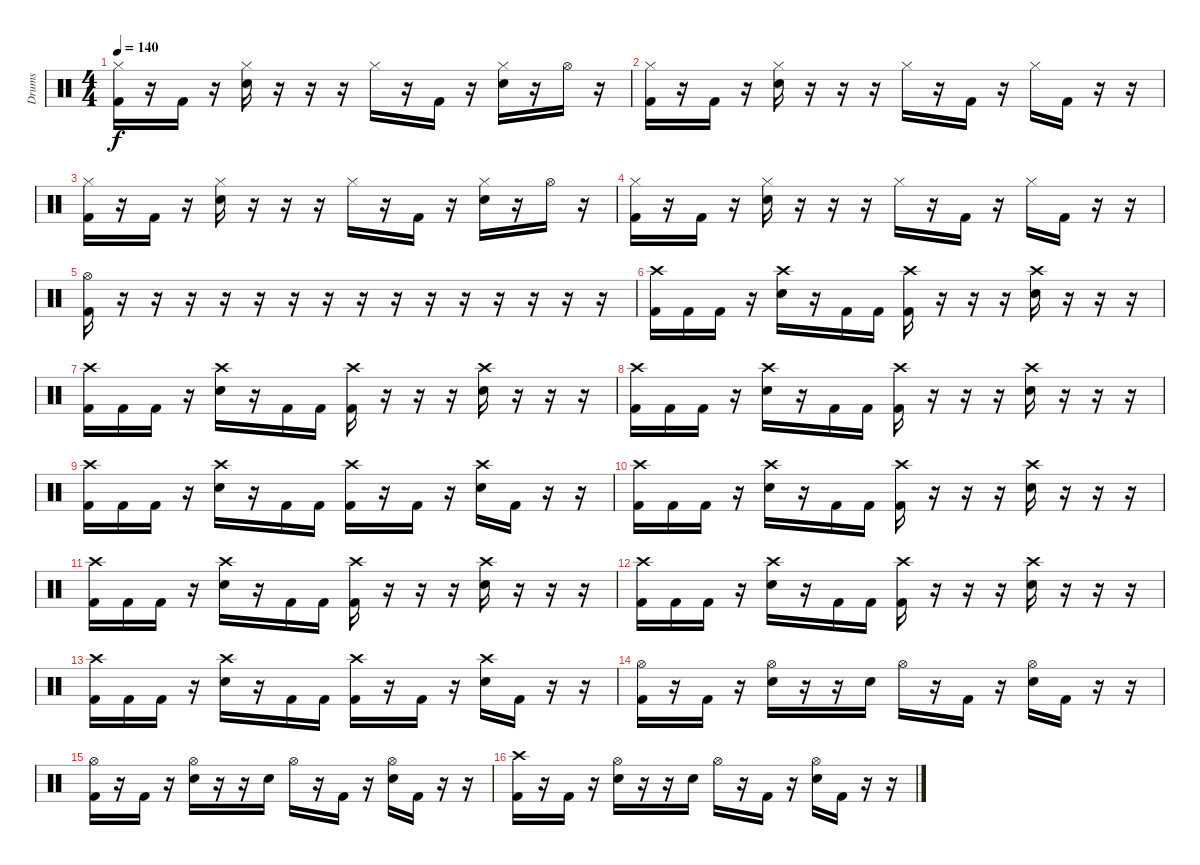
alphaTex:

\track ("Drums" "Drums") {instrument percussion}
\staff {score}
\articulation defaults
\ts (4 4)
\tempo 140
\clef neutral
\ks c
("Hi-Hat (closed)" "Kick (hit) 2").16{dy f} r.16 "Kick (hit) 2".16 r.16 ("Hi-Hat (closed)" "Electric Snare (hit)").16 r.16 r.16 r.16 "Hi-Hat (closed)".16 r.16 "Kick (hit) 2".16 r.16 ("Hi-Hat (closed)" "Electric Snare (hit)").16 r.16 "Hi-Hat (open)".16 r.16 |
("Hi-Hat (closed)" "Kick (hit) 2").16 r.16 "Kick (hit) 2".16 r.16 ("Hi-Hat (closed)" "Electric Snare (hit)").16 r.16 r.16 r.16 "Hi-Hat (closed)".16 r.16 "Kick (hit) 2".16 r.16 "Hi-Hat (closed)".16 "Kick (hit) 2".16 r.16 r.16 |
("Hi-Hat (closed)" "Kick (hit) 2").16 r.16 "Kick (hit) 2".16 r.16 ("Hi-Hat (closed)" "Electric Snare (hit)").16 r.16 r.16 r.16 "Hi-Hat (closed)".16 r.16 "Kick (hit) 2".16 r.16 ("Hi-Hat (closed)" "Electric Snare (hit)").16 r.16 "Hi-Hat (open)".16 r.16 |
("Hi-Hat (closed)" "Kick (hit) 2").16 r.16 "Kick (hit) 2".16 r.16 ("Hi-Hat (closed)" "Electric Snare (hit)").16 r.16 r.16 r.16 "Hi-Hat (closed)".16 r.16 "Kick (hit) 2".16 r.16 "Hi-Hat (closed)".16 "Kick (hit) 2".16 r.16 r.16 |
("Hi-Hat (open)" "Kick (hit) 2").16 r.16 r.16 r.16 r.16 r.16 r.16 r.16 r.16 r.16 r.16 r.16 r.16 r.16 r.16 r.16 |
("Crash high (hit)" "Kick (hit) 2").16 "Kick (hit) 2".16 "Kick (hit) 2".16 r.16 ("Crash high (hit)" "Electric Snare (hit)").16 r.16 "Kick (hit) 2".16 "Kick (hit) 2".16 ("Crash high (hit)" "Kick (hit) 2").16 r.16 r.16 r.16 ("Crash high (hit)" "Electric Snare (hit)").16 r.16 r.16 r.16 |
("Crash high (hit)" "Kick (hit) 2").16 "Kick (hit) 2".16 "Kick (hit) 2".16 r.16 ("Crash high (hit)" "Electric Snare (hit)").16 r.16 "Kick (hit) 2".16 "Kick (hit) 2".16 ("Crash high (hit)" "Kick (hit) 2").16 r.16 r.16 r.16 ("Crash high (hit)" "Electric Snare (hit)").16 r.16 r.16 r.16 |
("Crash high (hit)" "Kick (hit) 2").16 "Kick (hit) 2".16 "Kick (hit) 2".16 r.16 ("Crash high (hit)" "Electric Snare (hit)").16 r.16 "Kick (hit) 2".16 "Kick (hit) 2".16 ("Crash high (hit)" "Kick (hit) 2").16 r.16 r.16 r.16 ("Crash high (hit)" "Electric Snare (hit)").16 r.16 r.16 r.16 |
("Crash high (hit)" "Kick (hit) 2").16 "Kick (hit) 2".16 "Kick (hit) 2".16 r.16 ("Crash high (hit)" "Electric Snare (hit)").16 r.16 "Kick (hit) 2".16 "Kick (hit) 2".16 ("Crash high (hit)" "Kick (hit) 2").16 r.16 "Kick (hit) 2".16 r.16 ("Crash high (hit)" "Electric Snare (hit)").16 "Kick (hit) 2".16 r.16 r.16 |
("Crash high (hit)" "Kick (hit) 2").16 "Kick (hit) 2".16 "Kick (hit) 2".16 r.16 ("Crash high (hit)" "Electric Snare (hit)").16 r.16 "Kick (hit) 2".16 "Kick (hit) 2".16 ("Crash high (hit)" "Kick (hit) 2").16 r.16 r.16 r.16 ("Crash high (hit)" "Electric Snare (hit)").16 r.16 r.16 r.16 |
("Crash high (hit)" "Kick (hit) 2").16 "Kick (hit) 2".16 "Kick (hit) 2".16 r.16 ("Crash high (hit)" "Electric Snare (hit)").16 r.16 "Kick (hit) 2".16 "Kick (hit) 2".16 ("Crash high (hit)" "Kick (hit) 2").16 r.16 r.16 r.16 ("Crash high (hit)" "Electric Snare (hit)").16 r.16 r.16 r.16 |
("Crash high (hit)" "Kick (hit) 2").16 "Kick (hit) 2".16 "Kick (hit) 2".16 r.16 ("Crash high (hit)" "Electric Snare (hit)").16 r.16 "Kick (hit) 2".16 "Kick (hit) 2".16 ("Crash high (hit)" "Kick (hit) 2").16 r.16 r.16 r.16 ("Crash high (hit)" "Electric Snare (hit)").16 r.16 r.16 r.16 |
("Crash high (hit)" "Kick (hit) 2").16 "Kick (hit) 2".16 "Kick (hit) 2".16 r.16 ("Crash high (hit)" "Electric Snare (hit)").16 r.16 "Kick (hit) 2".16 "Kick (hit) 2".16 ("Crash high (hit)" "Kick (hit) 2").16 r.16 "Kick (hit) 2".16 r.16 ("Crash high (hit)" "Electric Snare (hit)").16 "Kick (hit) 2".16 r.16 r.16 |
("Hi-Hat (open)" "Kick (hit) 2").16 r.16 "Kick (hit) 2".16 r.16 ("Hi-Hat (open)" "Electric Snare (hit)").16 r.16 r.16 "Electric Snare (hit)".16 "Hi-Hat (open)".16 r.16 "Kick (hit) 2".16 r.16 ("Hi-Hat (open)" "Electric Snare (hit)").16 "Kick (hit) 2".16 r.16 r.16 |
("Hi-Hat (open)" "Kick (hit) 2").16 r.16 "Kick (hit) 2".16 r.16 ("Hi-Hat (open)" "Electric Snare (hit)").16 r.16 r.16 "Electric Snare (hit)".16 "Hi-Hat (open)".16 r.16 "Kick (hit) 2".16 r.16 ("Hi-Hat (open)" "Electric Snare (hit)").16 "Kick (hit) 2".16 r.16 r.16 |
("Crash high (hit)" "Kick (hit) 2").16 r.16 "Kick (hit) 2".16 r.16 ("Hi-Hat (open)" "Electric Snare (hit)").16 r.16 r.16 "Electric Snare (hit)".16 "Hi-Hat (open)".16 r.16 "Kick (hit) 2".16 r.16 ("Hi-Hat (open)" "Electric Snare (hit)").16 "Kick (hit) 2".16 r.16 r.16
